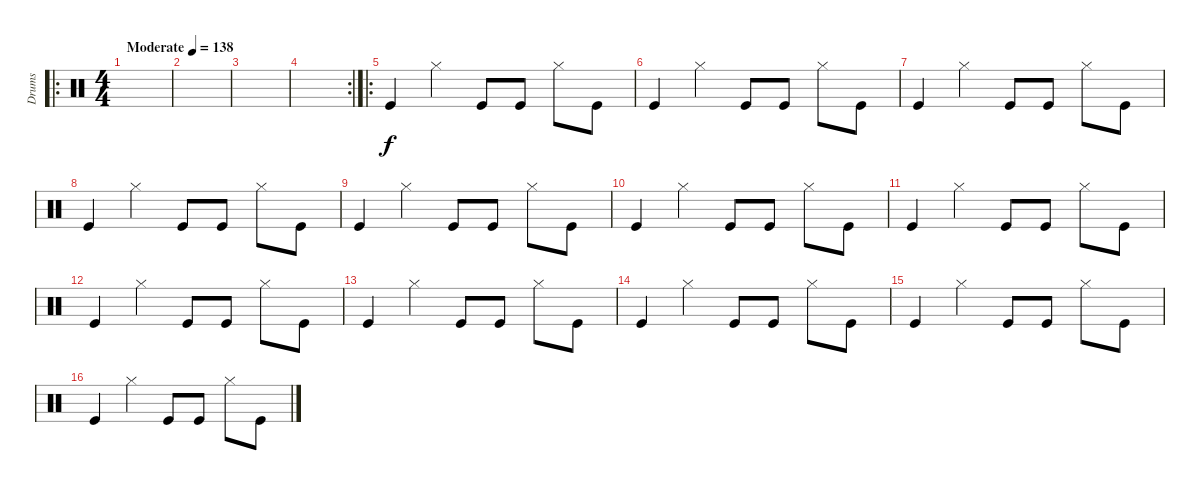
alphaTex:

\track ("Drums" "Drums") {instrument percussion}
\staff {score}
\articulation defaults
\ro
\ts (4 4)
\tempo (138 "Moderate")
\clef neutral
\ks c
|
|
|
\rc 2
|
\ro "Kick (hit)".4 "Hi-Hat (closed)".4 "Kick (hit)".8 "Kick (hit)".8 "Hi-Hat (closed)".8 "Kick (hit)".8
|
"Kick (hit)".4 "Hi-Hat (closed)".4 "Kick (hit)".8 "Kick (hit)".8 "Hi-Hat (closed)".8 "Kick (hit)".8 |
"Kick (hit)".4 "Hi-Hat (closed)".4 "Kick (hit)".8 "Kick (hit)".8 "Hi-Hat (closed)".8 "Kick (hit)".8 |
"Kick (hit)".4 "Hi-Hat (closed)".4 "Kick (hit)".8 "Kick (hit)".8 "Hi-Hat (closed)".8 "Kick (hit)".8 |
"Kick (hit)".4 "Hi-Hat (closed)".4 "Kick (hit)".8 "Kick (hit)".8 "Hi-Hat (closed)".8 "Kick (hit)".8 |
"Kick (hit)".4 "Hi-Hat (closed)".4 "Kick (hit)".8 "Kick (hit)".8 "Hi-Hat (closed)".8 "Kick (hit)".8 |
"Kick (hit)".4 "Hi-Hat (closed)".4 "Kick (hit)".8 "Kick (hit)".8 "Hi-Hat (closed)".8 "Kick (hit)".8 |
"Kick (hit)".4 "Hi-Hat (closed)".4 "Kick (hit)".8 "Kick (hit)".8 "Hi-Hat (closed)".8 "Kick (hit)".8 |
"Kick (hit)".4 "Hi-Hat (closed)".4 "Kick (hit)".8 "Kick (hit)".8 "Hi-Hat (closed)".8 "Kick (hit)".8 |
"Kick (hit)".4 "Hi-Hat (closed)".4 "Kick (hit)".8 "Kick (hit)".8 "Hi-Hat (closed)".8 "Kick (hit)".8 |
"Kick (hit)".4 "Hi-Hat (closed)".4 "Kick (hit)".8 "Kick (hit)".8 "Hi-Hat (closed)".8 "Kick (hit)".8 |
"Kick (hit)".4 "Hi-Hat (closed)".4 "Kick (hit)".8 "Kick (hit)".8 "Hi-Hat (closed)".8 "Kick (hit)".8
